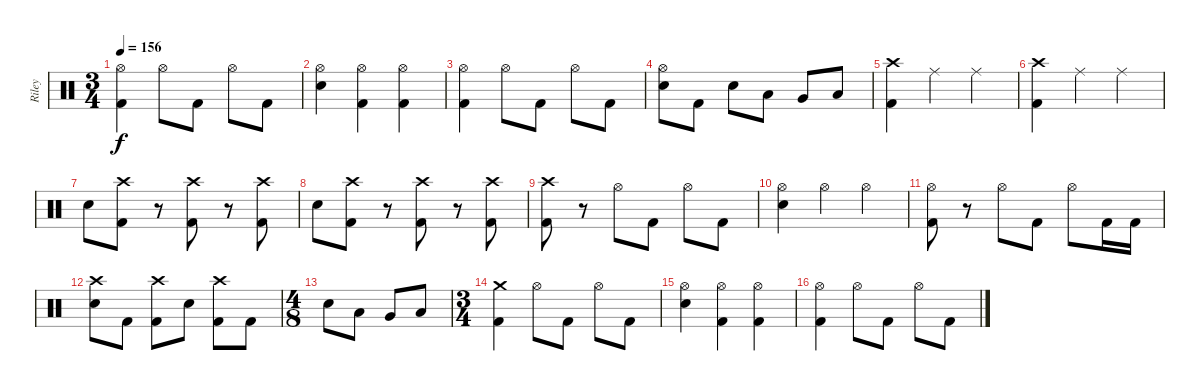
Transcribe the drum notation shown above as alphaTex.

\track ("Riley" "Riley") {instrument percussion}
\staff {score}
\articulation defaults
\ts (3 4)
\tempo 156
\clef neutral
\ks c
("Hi-Hat (open)" "Kick (hit) 2").4{dy f} "Hi-Hat (open)".8 "Kick (hit) 2".8 "Hi-Hat (open)".8 "Kick (hit) 2".8 |
("Hi-Hat (open)" "Electric Snare (hit)").4 ("Hi-Hat (open)" "Kick (hit) 2").4 ("Hi-Hat (open)" "Kick (hit) 2").4 |
("Hi-Hat (open)" "Kick (hit) 2").4 "Hi-Hat (open)".8 "Kick (hit) 2".8 "Hi-Hat (open)".8 "Kick (hit) 2".8 |
("Hi-Hat (open)" "Electric Snare (hit)").8 "Kick (hit) 2".8 "Electric Snare (hit)".8 "Low Tom (hit)".8 "Very Low Tom (hit)".8 "Low Floor Tom (hit)".8 |
("Crash high (hit)" "Kick (hit) 2").4 "Ride (middle)".4 "Ride (middle)".4 |
("Crash high (hit)" "Kick (hit) 2").4 "Ride (middle)".4 "Ride (middle)".4 |
"Electric Snare (hit)".8 ("Crash high (hit)" "Kick (hit) 2").8 r.8 ("Crash high (hit)" "Kick (hit) 2").8 r.8 ("Crash high (hit)" "Kick (hit) 2").8 |
"Electric Snare (hit)".8 ("Crash high (hit)" "Kick (hit) 2").8 r.8 ("Crash high (hit)" "Kick (hit) 2").8 r.8 ("Crash high (hit)" "Kick (hit) 2").8 |
("Crash high (hit)" "Kick (hit) 2").8 r.8 "Hi-Hat (open)".8 "Kick (hit) 2".8 "Hi-Hat (open)".8 "Kick (hit) 2".8 |
("Hi-Hat (open)" "Electric Snare (hit)").4 "Hi-Hat (open)".4 "Hi-Hat (open)".4 |
("Hi-Hat (open)" "Kick (hit) 2").8 r.8 "Hi-Hat (open)".8 "Kick (hit) 2".8 "Hi-Hat (open)".8 "Kick (hit) 2".16 "Kick (hit) 2".16 |
("Crash high (hit)" "Electric Snare (hit)").8 "Kick (hit) 2".8 ("Crash high (hit)" "Kick (hit) 2").8 "Electric Snare (hit)".8 ("Crash high (hit)" "Kick (hit) 2").8 "Kick (hit) 2".8 |
\ts (4 8)
"Electric Snare (hit)".8 "Low Tom (hit)".8 "Very Low Tom (hit)".8 "Low Floor Tom (hit)".8 |
\ts (3 4)
("Crash medium (hit)" "Kick (hit) 2").4 "Hi-Hat (open)".8 "Kick (hit) 2".8 "Hi-Hat (open)".8 "Kick (hit) 2".8 |
("Hi-Hat (open)" "Electric Snare (hit)").4 ("Hi-Hat (open)" "Kick (hit) 2").4 ("Hi-Hat (open)" "Kick (hit) 2").4 |
("Hi-Hat (open)" "Kick (hit) 2").4 "Hi-Hat (open)".8 "Kick (hit) 2".8 "Hi-Hat (open)".8 "Kick (hit) 2".8
